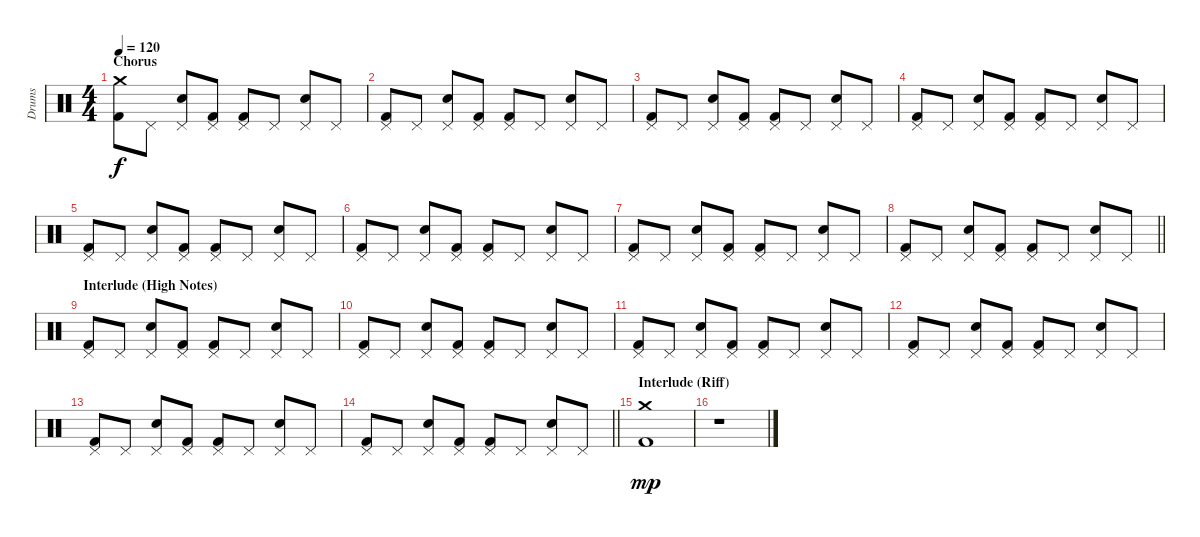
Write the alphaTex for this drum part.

\track ("Drums" "Drums") {instrument percussion}
\staff {score}
\articulation defaults
\ts (4 4)
\section ("" "Chorus")
\tempo 120
\clef neutral
\ks c
("Crash medium (hit)" "Kick (hit) 2").8{dy f} "Pedal Hi-Hat (hit)".8 ("Pedal Hi-Hat (hit)" "Electric Snare (hit)").8 ("Pedal Hi-Hat (hit)" "Kick (hit) 2").8 ("Pedal Hi-Hat (hit)" "Kick (hit) 2").8 "Pedal Hi-Hat (hit)".8 ("Pedal Hi-Hat (hit)" "Electric Snare (hit)").8 "Pedal Hi-Hat (hit)".8 |
("Pedal Hi-Hat (hit)" "Kick (hit) 2").8 "Pedal Hi-Hat (hit)".8 ("Pedal Hi-Hat (hit)" "Electric Snare (hit)").8 ("Pedal Hi-Hat (hit)" "Kick (hit) 2").8 ("Pedal Hi-Hat (hit)" "Kick (hit) 2").8 "Pedal Hi-Hat (hit)".8 ("Pedal Hi-Hat (hit)" "Electric Snare (hit)").8 "Pedal Hi-Hat (hit)".8 |
("Pedal Hi-Hat (hit)" "Kick (hit) 2").8 "Pedal Hi-Hat (hit)".8 ("Pedal Hi-Hat (hit)" "Electric Snare (hit)").8 ("Pedal Hi-Hat (hit)" "Kick (hit) 2").8 ("Pedal Hi-Hat (hit)" "Kick (hit) 2").8 "Pedal Hi-Hat (hit)".8 ("Pedal Hi-Hat (hit)" "Electric Snare (hit)").8 "Pedal Hi-Hat (hit)".8 |
("Pedal Hi-Hat (hit)" "Kick (hit) 2").8 "Pedal Hi-Hat (hit)".8 ("Pedal Hi-Hat (hit)" "Electric Snare (hit)").8 ("Pedal Hi-Hat (hit)" "Kick (hit) 2").8 ("Pedal Hi-Hat (hit)" "Kick (hit) 2").8 "Pedal Hi-Hat (hit)".8 ("Pedal Hi-Hat (hit)" "Electric Snare (hit)").8 "Pedal Hi-Hat (hit)".8 |
("Pedal Hi-Hat (hit)" "Kick (hit) 2").8 "Pedal Hi-Hat (hit)".8 ("Pedal Hi-Hat (hit)" "Electric Snare (hit)").8 ("Pedal Hi-Hat (hit)" "Kick (hit) 2").8 ("Pedal Hi-Hat (hit)" "Kick (hit) 2").8 "Pedal Hi-Hat (hit)".8 ("Pedal Hi-Hat (hit)" "Electric Snare (hit)").8 "Pedal Hi-Hat (hit)".8 |
("Pedal Hi-Hat (hit)" "Kick (hit) 2").8 "Pedal Hi-Hat (hit)".8 ("Pedal Hi-Hat (hit)" "Electric Snare (hit)").8 ("Pedal Hi-Hat (hit)" "Kick (hit) 2").8 ("Pedal Hi-Hat (hit)" "Kick (hit) 2").8 "Pedal Hi-Hat (hit)".8 ("Pedal Hi-Hat (hit)" "Electric Snare (hit)").8 "Pedal Hi-Hat (hit)".8 |
("Pedal Hi-Hat (hit)" "Kick (hit) 2").8 "Pedal Hi-Hat (hit)".8 ("Pedal Hi-Hat (hit)" "Electric Snare (hit)").8 ("Pedal Hi-Hat (hit)" "Kick (hit) 2").8 ("Pedal Hi-Hat (hit)" "Kick (hit) 2").8 "Pedal Hi-Hat (hit)".8 ("Pedal Hi-Hat (hit)" "Electric Snare (hit)").8 "Pedal Hi-Hat (hit)".8 |
\barLineRight lightlight
("Pedal Hi-Hat (hit)" "Kick (hit) 2").8 "Pedal Hi-Hat (hit)".8 ("Pedal Hi-Hat (hit)" "Electric Snare (hit)").8 ("Pedal Hi-Hat (hit)" "Kick (hit) 2").8 ("Pedal Hi-Hat (hit)" "Kick (hit) 2").8 "Pedal Hi-Hat (hit)".8 ("Pedal Hi-Hat (hit)" "Electric Snare (hit)").8 "Pedal Hi-Hat (hit)".8 |
\section ("" "Interlude (High Notes)")
("Pedal Hi-Hat (hit)" "Kick (hit) 2").8 "Pedal Hi-Hat (hit)".8 ("Pedal Hi-Hat (hit)" "Electric Snare (hit)").8 ("Pedal Hi-Hat (hit)" "Kick (hit) 2").8 ("Pedal Hi-Hat (hit)" "Kick (hit) 2").8 "Pedal Hi-Hat (hit)".8 ("Pedal Hi-Hat (hit)" "Electric Snare (hit)").8 "Pedal Hi-Hat (hit)".8 |
("Pedal Hi-Hat (hit)" "Kick (hit) 2").8 "Pedal Hi-Hat (hit)".8 ("Pedal Hi-Hat (hit)" "Electric Snare (hit)").8 ("Pedal Hi-Hat (hit)" "Kick (hit) 2").8 ("Pedal Hi-Hat (hit)" "Kick (hit) 2").8 "Pedal Hi-Hat (hit)".8 ("Pedal Hi-Hat (hit)" "Electric Snare (hit)").8 "Pedal Hi-Hat (hit)".8 |
("Pedal Hi-Hat (hit)" "Kick (hit) 2").8 "Pedal Hi-Hat (hit)".8 ("Pedal Hi-Hat (hit)" "Electric Snare (hit)").8 ("Pedal Hi-Hat (hit)" "Kick (hit) 2").8 ("Pedal Hi-Hat (hit)" "Kick (hit) 2").8 "Pedal Hi-Hat (hit)".8 ("Pedal Hi-Hat (hit)" "Electric Snare (hit)").8 "Pedal Hi-Hat (hit)".8 |
("Pedal Hi-Hat (hit)" "Kick (hit) 2").8 "Pedal Hi-Hat (hit)".8 ("Pedal Hi-Hat (hit)" "Electric Snare (hit)").8 ("Pedal Hi-Hat (hit)" "Kick (hit) 2").8 ("Pedal Hi-Hat (hit)" "Kick (hit) 2").8 "Pedal Hi-Hat (hit)".8 ("Pedal Hi-Hat (hit)" "Electric Snare (hit)").8 "Pedal Hi-Hat (hit)".8 |
("Pedal Hi-Hat (hit)" "Kick (hit) 2").8 "Pedal Hi-Hat (hit)".8 ("Pedal Hi-Hat (hit)" "Electric Snare (hit)").8 ("Pedal Hi-Hat (hit)" "Kick (hit) 2").8 ("Pedal Hi-Hat (hit)" "Kick (hit) 2").8 "Pedal Hi-Hat (hit)".8 ("Pedal Hi-Hat (hit)" "Electric Snare (hit)").8 "Pedal Hi-Hat (hit)".8 |
\barLineRight lightlight
("Pedal Hi-Hat (hit)" "Kick (hit) 2").8 "Pedal Hi-Hat (hit)".8 ("Pedal Hi-Hat (hit)" "Electric Snare (hit)").8 ("Pedal Hi-Hat (hit)" "Kick (hit) 2").8 ("Pedal Hi-Hat (hit)" "Kick (hit) 2").8 "Pedal Hi-Hat (hit)".8 ("Pedal Hi-Hat (hit)" "Electric Snare (hit)").8 "Pedal Hi-Hat (hit)".8 |
\section ("" "Interlude (Riff)")
("Crash medium (hit)" "Kick (hit) 2").1{dy mp} |
r.1
